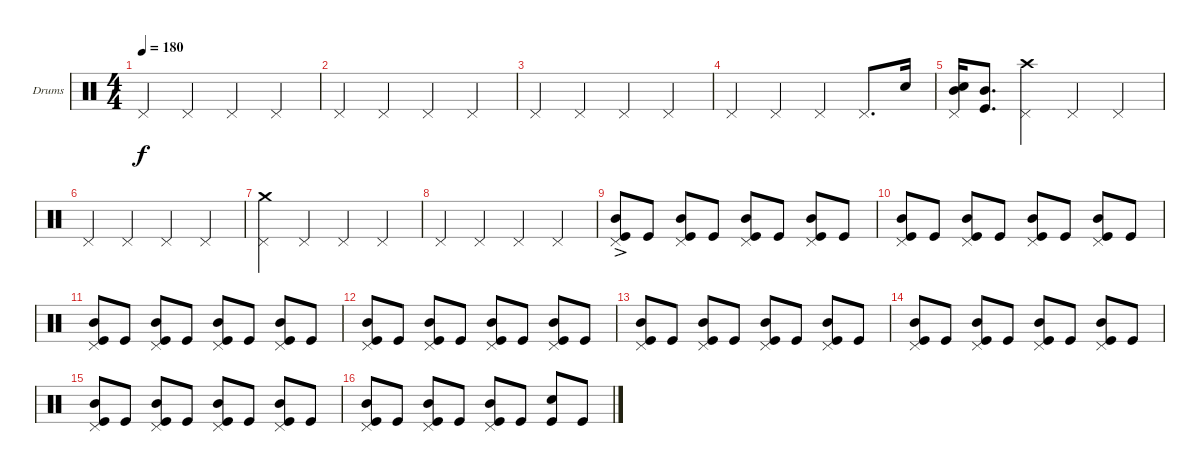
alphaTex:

\defaultSystemsLayout 4
\bracketExtendMode groupsimilarinstruments
\firstSystemTrackNameOrientation horizontal
\otherSystemsTrackNameOrientation horizontal
\track ("Drumkit" "Drums") {multiBarRest instrument percussion}
\staff {score}
\articulation defaults
\ts (4 4)
\tempo 180
\clef neutral
\scale
0.474178
\ks c "Pedal Hi-Hat (hit)".4{dy f} "Pedal Hi-Hat (hit)".4 "Pedal Hi-Hat (hit)".4 "Pedal Hi-Hat (hit)".4
|
\scale
0.262911 "Pedal Hi-Hat (hit)".4 "Pedal Hi-Hat (hit)".4 "Pedal Hi-Hat (hit)".4 "Pedal Hi-Hat (hit)".4 |
\scale
0.262911 "Pedal Hi-Hat (hit)".4 "Pedal Hi-Hat (hit)".4 "Pedal Hi-Hat (hit)".4 "Pedal Hi-Hat (hit)".4 |
\scale
0.333333 "Pedal Hi-Hat (hit)".4 "Pedal Hi-Hat (hit)".4 "Pedal Hi-Hat (hit)".4 "Pedal Hi-Hat (hit)".8{d} "Snare (hit) 2".16 |
\scale
0.333333 ("Pedal Hi-Hat (hit)" "Snare (hit) 2" "Mid Tom (hit)").16 ("Mid Tom (hit)" "Kick (hit)").8{d} ("Pedal Hi-Hat (hit)" "Crash high (hit)").4 "Pedal Hi-Hat (hit)".4 "Pedal Hi-Hat (hit)".4 |
\scale
0.333333 "Pedal Hi-Hat (hit)".4 "Pedal Hi-Hat (hit)".4 "Pedal Hi-Hat (hit)".4 "Pedal Hi-Hat (hit)".4 |
\scale
0.333333 ("Pedal Hi-Hat (hit)" "Crash medium (hit)").4 "Pedal Hi-Hat (hit)".4 "Pedal Hi-Hat (hit)".4 "Pedal Hi-Hat (hit)".4 |
\scale
0.333333 "Pedal Hi-Hat (hit)".4 "Pedal Hi-Hat (hit)".4 "Pedal Hi-Hat (hit)".4 "Pedal Hi-Hat (hit)".4 |
\scale
0.333333 ("Pedal Hi-Hat (hit)" "Mid Tom (hit)" "Kick (hit)"{ac}).8 "Kick (hit)".8 ("Pedal Hi-Hat (hit)" "Mid Tom (hit)" "Kick (hit)").8 "Kick (hit)".8 ("Pedal Hi-Hat (hit)" "Mid Tom (hit)" "Kick (hit)").8 "Kick (hit)".8 ("Pedal Hi-Hat (hit)" "Mid Tom (hit)" "Kick (hit)").8 "Kick (hit)".8 |
\scale
0.333333 ("Pedal Hi-Hat (hit)" "Mid Tom (hit)" "Kick (hit)").8 "Kick (hit)".8 ("Pedal Hi-Hat (hit)" "Mid Tom (hit)" "Kick (hit)").8 "Kick (hit)".8 ("Pedal Hi-Hat (hit)" "Mid Tom (hit)" "Kick (hit)").8 "Kick (hit)".8 ("Pedal Hi-Hat (hit)" "Mid Tom (hit)" "Kick (hit)").8 "Kick (hit)".8 |
\scale
0.333333 ("Pedal Hi-Hat (hit)" "Mid Tom (hit)" "Kick (hit)").8 "Kick (hit)".8 ("Pedal Hi-Hat (hit)" "Mid Tom (hit)" "Kick (hit)").8 "Kick (hit)".8 ("Pedal Hi-Hat (hit)" "Mid Tom (hit)" "Kick (hit)").8 "Kick (hit)".8 ("Pedal Hi-Hat (hit)" "Mid Tom (hit)" "Kick (hit)").8 "Kick (hit)".8 |
\scale
0.333333 ("Pedal Hi-Hat (hit)" "Mid Tom (hit)" "Kick (hit)").8 "Kick (hit)".8 ("Pedal Hi-Hat (hit)" "Mid Tom (hit)" "Kick (hit)").8 "Kick (hit)".8 ("Pedal Hi-Hat (hit)" "Mid Tom (hit)" "Kick (hit)").8 "Kick (hit)".8 ("Pedal Hi-Hat (hit)" "Mid Tom (hit)" "Kick (hit)").8 "Kick (hit)".8 |
\scale
0.333333 ("Pedal Hi-Hat (hit)" "Mid Tom (hit)" "Kick (hit)").8 "Kick (hit)".8 ("Pedal Hi-Hat (hit)" "Mid Tom (hit)" "Kick (hit)").8 "Kick (hit)".8 ("Pedal Hi-Hat (hit)" "Mid Tom (hit)" "Kick (hit)").8 "Kick (hit)".8 ("Pedal Hi-Hat (hit)" "Mid Tom (hit)" "Kick (hit)").8 "Kick (hit)".8 |
\scale
0.333333 ("Pedal Hi-Hat (hit)" "Mid Tom (hit)" "Kick (hit)").8 "Kick (hit)".8 ("Pedal Hi-Hat (hit)" "Mid Tom (hit)" "Kick (hit)").8 "Kick (hit)".8 ("Pedal Hi-Hat (hit)" "Mid Tom (hit)" "Kick (hit)").8 "Kick (hit)".8 ("Pedal Hi-Hat (hit)" "Mid Tom (hit)" "Kick (hit)").8 "Kick (hit)".8 |
\scale
0.333333 ("Pedal Hi-Hat (hit)" "Mid Tom (hit)" "Kick (hit)").8 "Kick (hit)".8 ("Pedal Hi-Hat (hit)" "Mid Tom (hit)" "Kick (hit)").8 "Kick (hit)".8 ("Pedal Hi-Hat (hit)" "Mid Tom (hit)" "Kick (hit)").8 "Kick (hit)".8 ("Pedal Hi-Hat (hit)" "Mid Tom (hit)" "Kick (hit)").8 "Kick (hit)".8 |
\scale
0.333333 ("Pedal Hi-Hat (hit)" "Mid Tom (hit)" "Kick (hit)").8 "Kick (hit)".8 ("Pedal Hi-Hat (hit)" "Mid Tom (hit)" "Kick (hit)").8 "Kick (hit)".8 ("Pedal Hi-Hat (hit)" "Mid Tom (hit)" "Kick (hit)").8 "Kick (hit)".8 ("Snare (hit) 2" "Kick (hit)").8 "Kick (hit)".8
